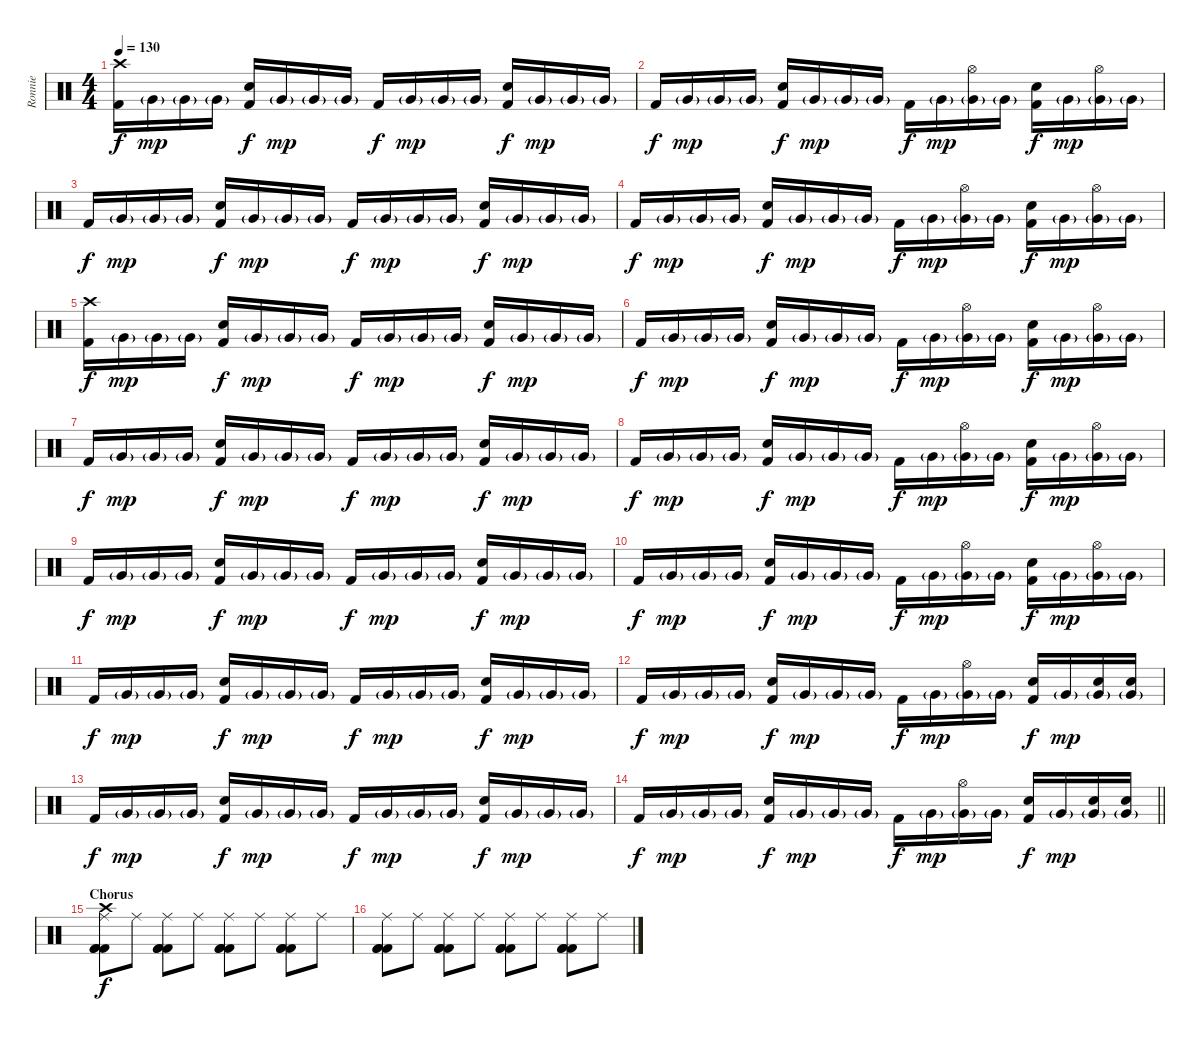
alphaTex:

\track ("Ronnie" "Ronnie") {instrument percussion}
\staff {score}
\articulation defaults
\ts (4 4)
\tempo 130
\clef neutral
\ks c
("Kick (hit) 2" "Crash high (hit)").16{dy f} "Very Low Tom (hit)"{g}.16{dy mp} "Very Low Tom (hit)"{g}.16 "Very Low Tom (hit)"{g}.16 ("Electric Snare (hit)" "Kick (hit) 2").16{dy f} "Very Low Tom (hit)"{g}.16{dy mp} "Very Low Tom (hit)"{g}.16 "Very Low Tom (hit)"{g}.16 "Kick (hit) 2".16{dy f} "Very Low Tom (hit)"{g}.16{dy mp} "Very Low Tom (hit)"{g}.16 "Very Low Tom (hit)"{g}.16 ("Electric Snare (hit)" "Kick (hit) 2").16{dy f} "Very Low Tom (hit)"{g}.16{dy mp} "Very Low Tom (hit)"{g}.16 "Very Low Tom (hit)"{g}.16 |
"Kick (hit) 2".16{dy f} "Very Low Tom (hit)"{g}.16{dy mp} "Very Low Tom (hit)"{g}.16 "Very Low Tom (hit)"{g}.16 ("Electric Snare (hit)" "Kick (hit) 2").16{dy f} "Very Low Tom (hit)"{g}.16{dy mp} "Very Low Tom (hit)"{g}.16 "Very Low Tom (hit)"{g}.16 "Kick (hit) 2".16{dy f} "Very Low Tom (hit)"{g}.16{dy mp} ("Very Low Tom (hit)"{g} "Hi-Hat (open)").16 "Very Low Tom (hit)"{g}.16 ("Electric Snare (hit)" "Kick (hit) 2").16{dy f} "Very Low Tom (hit)"{g}.16{dy mp} ("Very Low Tom (hit)"{g} "Hi-Hat (open)").16 "Very Low Tom (hit)"{g}.16 |
"Kick (hit) 2".16{dy f} "Very Low Tom (hit)"{g}.16{dy mp} "Very Low Tom (hit)"{g}.16 "Very Low Tom (hit)"{g}.16 ("Electric Snare (hit)" "Kick (hit) 2").16{dy f} "Very Low Tom (hit)"{g}.16{dy mp} "Very Low Tom (hit)"{g}.16 "Very Low Tom (hit)"{g}.16 "Kick (hit) 2".16{dy f} "Very Low Tom (hit)"{g}.16{dy mp} "Very Low Tom (hit)"{g}.16 "Very Low Tom (hit)"{g}.16 ("Electric Snare (hit)" "Kick (hit) 2").16{dy f} "Very Low Tom (hit)"{g}.16{dy mp} "Very Low Tom (hit)"{g}.16 "Very Low Tom (hit)"{g}.16 |
"Kick (hit) 2".16{dy f} "Very Low Tom (hit)"{g}.16{dy mp} "Very Low Tom (hit)"{g}.16 "Very Low Tom (hit)"{g}.16 ("Electric Snare (hit)" "Kick (hit) 2").16{dy f} "Very Low Tom (hit)"{g}.16{dy mp} "Very Low Tom (hit)"{g}.16 "Very Low Tom (hit)"{g}.16 "Kick (hit) 2".16{dy f} "Very Low Tom (hit)"{g}.16{dy mp} ("Very Low Tom (hit)"{g} "Hi-Hat (open)").16 "Very Low Tom (hit)"{g}.16 ("Electric Snare (hit)" "Kick (hit) 2").16{dy f} "Very Low Tom (hit)"{g}.16{dy mp} ("Very Low Tom (hit)"{g} "Hi-Hat (open)").16 "Very Low Tom (hit)"{g}.16 |
("Kick (hit) 2" "Crash high (hit)").16{dy f} "Very Low Tom (hit)"{g}.16{dy mp} "Very Low Tom (hit)"{g}.16 "Very Low Tom (hit)"{g}.16 ("Electric Snare (hit)" "Kick (hit) 2").16{dy f} "Very Low Tom (hit)"{g}.16{dy mp} "Very Low Tom (hit)"{g}.16 "Very Low Tom (hit)"{g}.16 "Kick (hit) 2".16{dy f} "Very Low Tom (hit)"{g}.16{dy mp} "Very Low Tom (hit)"{g}.16 "Very Low Tom (hit)"{g}.16 ("Electric Snare (hit)" "Kick (hit) 2").16{dy f} "Very Low Tom (hit)"{g}.16{dy mp} "Very Low Tom (hit)"{g}.16 "Very Low Tom (hit)"{g}.16 |
"Kick (hit) 2".16{dy f} "Very Low Tom (hit)"{g}.16{dy mp} "Very Low Tom (hit)"{g}.16 "Very Low Tom (hit)"{g}.16 ("Electric Snare (hit)" "Kick (hit) 2").16{dy f} "Very Low Tom (hit)"{g}.16{dy mp} "Very Low Tom (hit)"{g}.16 "Very Low Tom (hit)"{g}.16 "Kick (hit) 2".16{dy f} "Very Low Tom (hit)"{g}.16{dy mp} ("Very Low Tom (hit)"{g} "Hi-Hat (open)").16 "Very Low Tom (hit)"{g}.16 ("Electric Snare (hit)" "Kick (hit) 2").16{dy f} "Very Low Tom (hit)"{g}.16{dy mp} ("Very Low Tom (hit)"{g} "Hi-Hat (open)").16 "Very Low Tom (hit)"{g}.16 |
"Kick (hit) 2".16{dy f} "Very Low Tom (hit)"{g}.16{dy mp} "Very Low Tom (hit)"{g}.16 "Very Low Tom (hit)"{g}.16 ("Electric Snare (hit)" "Kick (hit) 2").16{dy f} "Very Low Tom (hit)"{g}.16{dy mp} "Very Low Tom (hit)"{g}.16 "Very Low Tom (hit)"{g}.16 "Kick (hit) 2".16{dy f} "Very Low Tom (hit)"{g}.16{dy mp} "Very Low Tom (hit)"{g}.16 "Very Low Tom (hit)"{g}.16 ("Electric Snare (hit)" "Kick (hit) 2").16{dy f} "Very Low Tom (hit)"{g}.16{dy mp} "Very Low Tom (hit)"{g}.16 "Very Low Tom (hit)"{g}.16 |
"Kick (hit) 2".16{dy f} "Very Low Tom (hit)"{g}.16{dy mp} "Very Low Tom (hit)"{g}.16 "Very Low Tom (hit)"{g}.16 ("Electric Snare (hit)" "Kick (hit) 2").16{dy f} "Very Low Tom (hit)"{g}.16{dy mp} "Very Low Tom (hit)"{g}.16 "Very Low Tom (hit)"{g}.16 "Kick (hit) 2".16{dy f} "Very Low Tom (hit)"{g}.16{dy mp} ("Very Low Tom (hit)"{g} "Hi-Hat (open)").16 "Very Low Tom (hit)"{g}.16 ("Electric Snare (hit)" "Kick (hit) 2").16{dy f} "Very Low Tom (hit)"{g}.16{dy mp} ("Very Low Tom (hit)"{g} "Hi-Hat (open)").16 "Very Low Tom (hit)"{g}.16 |
"Kick (hit) 2".16{dy f} "Very Low Tom (hit)"{g}.16{dy mp} "Very Low Tom (hit)"{g}.16 "Very Low Tom (hit)"{g}.16 ("Electric Snare (hit)" "Kick (hit) 2").16{dy f} "Very Low Tom (hit)"{g}.16{dy mp} "Very Low Tom (hit)"{g}.16 "Very Low Tom (hit)"{g}.16 "Kick (hit) 2".16{dy f} "Very Low Tom (hit)"{g}.16{dy mp} "Very Low Tom (hit)"{g}.16 "Very Low Tom (hit)"{g}.16 ("Electric Snare (hit)" "Kick (hit) 2").16{dy f} "Very Low Tom (hit)"{g}.16{dy mp} "Very Low Tom (hit)"{g}.16 "Very Low Tom (hit)"{g}.16 |
"Kick (hit) 2".16{dy f} "Very Low Tom (hit)"{g}.16{dy mp} "Very Low Tom (hit)"{g}.16 "Very Low Tom (hit)"{g}.16 ("Electric Snare (hit)" "Kick (hit) 2").16{dy f} "Very Low Tom (hit)"{g}.16{dy mp} "Very Low Tom (hit)"{g}.16 "Very Low Tom (hit)"{g}.16 "Kick (hit) 2".16{dy f} "Very Low Tom (hit)"{g}.16{dy mp} ("Very Low Tom (hit)"{g} "Hi-Hat (open)").16 "Very Low Tom (hit)"{g}.16 ("Electric Snare (hit)" "Kick (hit) 2").16{dy f} "Very Low Tom (hit)"{g}.16{dy mp} ("Very Low Tom (hit)"{g} "Hi-Hat (open)").16 "Very Low Tom (hit)"{g}.16 |
"Kick (hit) 2".16{dy f} "Very Low Tom (hit)"{g}.16{dy mp} "Very Low Tom (hit)"{g}.16 "Very Low Tom (hit)"{g}.16 ("Electric Snare (hit)" "Kick (hit) 2").16{dy f} "Very Low Tom (hit)"{g}.16{dy mp} "Very Low Tom (hit)"{g}.16 "Very Low Tom (hit)"{g}.16 "Kick (hit) 2".16{dy f} "Very Low Tom (hit)"{g}.16{dy mp} "Very Low Tom (hit)"{g}.16 "Very Low Tom (hit)"{g}.16 ("Electric Snare (hit)" "Kick (hit) 2").16{dy f} "Very Low Tom (hit)"{g}.16{dy mp} "Very Low Tom (hit)"{g}.16 "Very Low Tom (hit)"{g}.16 |
"Kick (hit) 2".16{dy f} "Very Low Tom (hit)"{g}.16{dy mp} "Very Low Tom (hit)"{g}.16 "Very Low Tom (hit)"{g}.16 ("Electric Snare (hit)" "Kick (hit) 2").16{dy f} "Very Low Tom (hit)"{g}.16{dy mp} "Very Low Tom (hit)"{g}.16 "Very Low Tom (hit)"{g}.16 "Kick (hit) 2".16{dy f} "Very Low Tom (hit)"{g}.16{dy mp} ("Very Low Tom (hit)"{g} "Hi-Hat (open)").16 "Very Low Tom (hit)"{g}.16 ("Electric Snare (hit)" "Kick (hit) 2").16{dy f} "Very Low Tom (hit)"{g}.16{dy mp} ("Very Low Tom (hit)"{g} "Electric Snare (hit)").16 ("Very Low Tom (hit)"{g} "Electric Snare (hit)").16 |
"Kick (hit) 2".16{dy f} "Very Low Tom (hit)"{g}.16{dy mp} "Very Low Tom (hit)"{g}.16 "Very Low Tom (hit)"{g}.16 ("Electric Snare (hit)" "Kick (hit) 2").16{dy f} "Very Low Tom (hit)"{g}.16{dy mp} "Very Low Tom (hit)"{g}.16 "Very Low Tom (hit)"{g}.16 "Kick (hit) 2".16{dy f} "Very Low Tom (hit)"{g}.16{dy mp} "Very Low Tom (hit)"{g}.16 "Very Low Tom (hit)"{g}.16 ("Electric Snare (hit)" "Kick (hit) 2").16{dy f} "Very Low Tom (hit)"{g}.16{dy mp} "Very Low Tom (hit)"{g}.16 "Very Low Tom (hit)"{g}.16 |
\barLineRight lightlight "Kick (hit) 2".16{dy f} "Very Low Tom (hit)"{g}.16{dy mp} "Very Low Tom (hit)"{g}.16 "Very Low Tom (hit)"{g}.16
("Electric Snare (hit)" "Kick (hit) 2").16{dy f} "Very Low Tom (hit)"{g}.16{dy mp} "Very Low Tom (hit)"{g}.16 "Very Low Tom (hit)"{g}.16 "Kick (hit) 2".16{dy f} "Very Low Tom (hit)"{g}.16{dy mp} ("Very Low Tom (hit)"{g} "Hi-Hat (open)").16 "Very Low Tom (hit)"{g}.16 ("Electric Snare (hit)" "Kick (hit) 2").16{dy f} "Very Low Tom (hit)"{g}.16{dy mp} ("Very Low Tom (hit)"{g} "Electric Snare (hit)").16 ("Very Low Tom (hit)"{g} "Electric Snare (hit)").16 |
\section ("" "Chorus")
("Crash high (hit)" "Ride (middle)" "Kick (hit) 2" "Kick (hit) 2" "Kick (hit) 2").8{dy f} "Ride (middle)".8 ("Ride (middle)" "Kick (hit) 2" "Kick (hit) 2" "Kick (hit) 2").8 "Ride (middle)".8 ("Ride (middle)" "Kick (hit) 2" "Kick (hit) 2" "Kick (hit) 2").8 "Ride (middle)".8 ("Ride (middle)" "Kick (hit) 2" "Kick (hit) 2" "Kick (hit) 2").8 "Ride (middle)".8 |
("Ride (middle)" "Kick (hit) 2" "Kick (hit) 2" "Kick (hit) 2").8 "Ride (middle)".8 ("Ride (middle)" "Kick (hit) 2" "Kick (hit) 2" "Kick (hit) 2").8 "Ride (middle)".8 ("Ride (middle)" "Kick (hit) 2" "Kick (hit) 2" "Kick (hit) 2").8 "Ride (middle)".8 ("Ride (middle)" "Kick (hit) 2" "Kick (hit) 2" "Kick (hit) 2").8 "Ride (middle)".8
